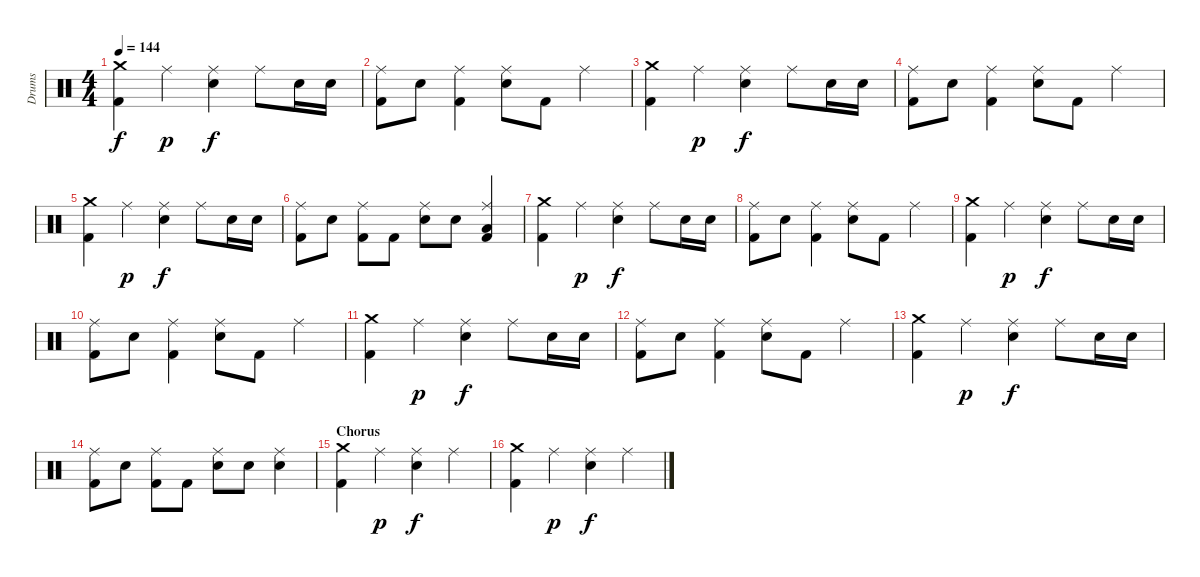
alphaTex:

\track ("Drums" "Drums") {instrument percussion}
\staff {score}
\articulation defaults
\ts (4 4)
\tempo 144
\clef neutral
\ks c
("Crash medium (hit)" "Kick (hit) 2").4{dy f} "Ride (middle)".4{dy p} ("Ride (middle)" "Snare (hit) 2").4{dy f} "Ride (middle)".8 "Snare (hit) 2".16 "Snare (hit) 2".16 |
("Ride (middle)" "Kick (hit) 2").8 "Snare (hit) 2".8 ("Ride (middle)" "Kick (hit) 2").4 ("Ride (middle)" "Snare (hit) 2").8 "Kick (hit) 2".8 "Ride (middle)".4 |
("Crash medium (hit)" "Kick (hit) 2").4 "Ride (middle)".4{dy p} ("Ride (middle)" "Snare (hit) 2").4{dy f} "Ride (middle)".8 "Snare (hit) 2".16 "Snare (hit) 2".16 |
("Ride (middle)" "Kick (hit) 2").8 "Snare (hit) 2".8 ("Ride (middle)" "Kick (hit) 2").4 ("Ride (middle)" "Snare (hit) 2").8 "Kick (hit) 2".8 "Ride (middle)".4 |
("Crash medium (hit)" "Kick (hit) 2").4 "Ride (middle)".4{dy p} ("Ride (middle)" "Snare (hit) 2").4{dy f} "Ride (middle)".8 "Snare (hit) 2".16 "Snare (hit) 2".16 |
("Ride (middle)" "Kick (hit) 2").8 "Snare (hit) 2".8 ("Ride (middle)" "Kick (hit) 2").8 "Kick (hit) 2".8 ("Ride (middle)" "Snare (hit) 2").8 "Snare (hit) 2".8 ("Ride (middle)" "Low Tom (hit)" "Kick (hit) 2").4 |
("Crash medium (hit)" "Kick (hit) 2").4 "Ride (middle)".4{dy p} ("Ride (middle)" "Snare (hit) 2").4{dy f} "Ride (middle)".8 "Snare (hit) 2".16 "Snare (hit) 2".16 |
("Ride (middle)" "Kick (hit) 2").8 "Snare (hit) 2".8 ("Ride (middle)" "Kick (hit) 2").4 ("Ride (middle)" "Snare (hit) 2").8 "Kick (hit) 2".8 "Ride (middle)".4 |
("Crash medium (hit)" "Kick (hit) 2").4 "Ride (middle)".4{dy p} ("Ride (middle)" "Snare (hit) 2").4{dy f} "Ride (middle)".8 "Snare (hit) 2".16 "Snare (hit) 2".16 |
("Ride (middle)" "Kick (hit) 2").8 "Snare (hit) 2".8 ("Ride (middle)" "Kick (hit) 2").4 ("Ride (middle)" "Snare (hit) 2").8 "Kick (hit) 2".8 "Ride (middle)".4 |
("Crash medium (hit)" "Kick (hit) 2").4 "Ride (middle)".4{dy p} ("Ride (middle)" "Snare (hit) 2").4{dy f} "Ride (middle)".8 "Snare (hit) 2".16 "Snare (hit) 2".16 |
("Ride (middle)" "Kick (hit) 2").8 "Snare (hit) 2".8 ("Ride (middle)" "Kick (hit) 2").4 ("Ride (middle)" "Snare (hit) 2").8 "Kick (hit) 2".8 "Ride (middle)".4 |
("Crash medium (hit)" "Kick (hit) 2").4 "Ride (middle)".4{dy p} ("Ride (middle)" "Snare (hit) 2").4{dy f} "Ride (middle)".8 "Snare (hit) 2".16 "Snare (hit) 2".16 |
("Ride (middle)" "Kick (hit) 2").8 "Snare (hit) 2".8 ("Ride (middle)" "Kick (hit) 2").8 "Kick (hit) 2".8 ("Ride (middle)" "Snare (hit) 2").8 "Snare (hit) 2".8 ("Ride (middle)" "Snare (hit) 2").4 |
\section ("" "Chorus")
("Crash medium (hit)" "Kick (hit) 2").4 "Ride (middle)".4{dy p} ("Ride (middle)" "Snare (hit) 2").4{dy f} "Ride (middle)".4 |
("Crash medium (hit)" "Kick (hit) 2").4 "Ride (middle)".4{dy p} ("Ride (middle)" "Snare (hit) 2").4{dy f} "Ride (middle)".4
